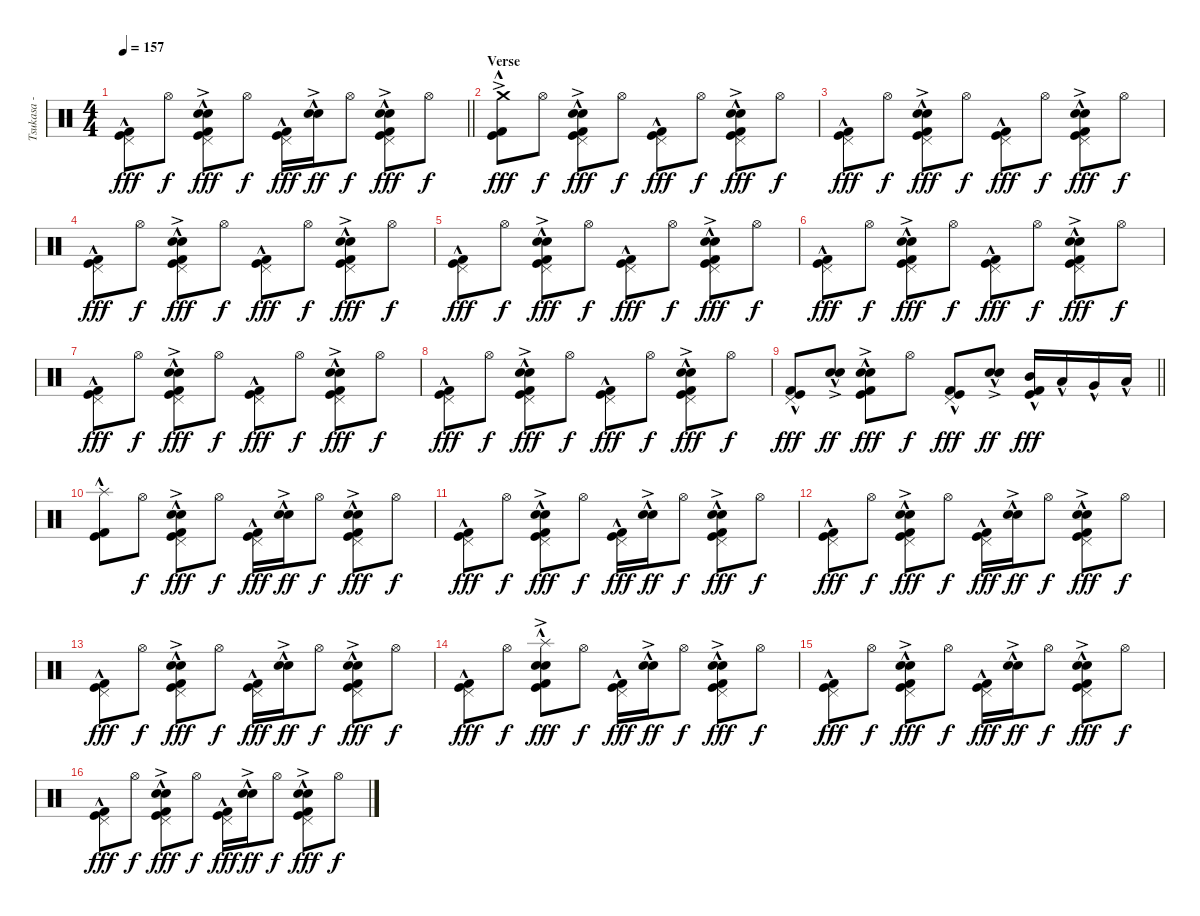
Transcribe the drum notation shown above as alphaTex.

\track ("Tsukasa - Drums" "Tsukasa - ") {instrument percussion}
\staff {score}
\articulation defaults
\ts (4 4)
\tempo 157
\clef neutral
\barLineRight lightlight
\ks c
("Pedal Hi-Hat (hit)" "Kick (hit) 2"{hac} "Kick (hit)"{hac}).8{dy fff} "Hi-Hat (open)".8{dy f} ("Pedal Hi-Hat (hit)" "Electric Snare (hit)"{hac} "Snare (hit) 2"{ac} "Kick (hit) 2"{hac} "Kick (hit)"{hac}).8{dy fff} "Hi-Hat (open)".8{dy f} ("Pedal Hi-Hat (hit)" "Kick (hit) 2"{hac} "Kick (hit)"{hac}).16{dy fff} ("Electric Snare (hit)"{hac} "Snare (hit) 2"{ac}).16{dy ff} "Hi-Hat (open)".8{dy f} ("Pedal Hi-Hat (hit)" "Electric Snare (hit)"{hac} "Snare (hit) 2"{ac} "Kick (hit) 2"{hac} "Kick (hit)"{hac}).8{dy fff} "Hi-Hat (open)".8{dy f} |
\section ("" "Verse")
("Crash medium (hit)"{ac} "Kick (hit) 2"{hac} "Kick (hit)"{hac}).8{dy fff} "Hi-Hat (open)".8{dy f} ("Pedal Hi-Hat (hit)" "Electric Snare (hit)"{hac} "Snare (hit) 2"{ac} "Kick (hit) 2"{hac} "Kick (hit)"{hac}).8{dy fff} "Hi-Hat (open)".8{dy f} ("Pedal Hi-Hat (hit)" "Kick (hit) 2"{hac} "Kick (hit)"{hac}).8{dy fff} "Hi-Hat (open)".8{dy f} ("Pedal Hi-Hat (hit)" "Electric Snare (hit)"{hac} "Snare (hit) 2"{ac} "Kick (hit) 2"{hac} "Kick (hit)"{hac}).8{dy fff} "Hi-Hat (open)".8{dy f} |
("Pedal Hi-Hat (hit)" "Kick (hit) 2"{hac} "Kick (hit)"{hac}).8{dy fff} "Hi-Hat (open)".8{dy f} ("Pedal Hi-Hat (hit)" "Electric Snare (hit)"{hac} "Snare (hit) 2"{ac} "Kick (hit) 2"{hac} "Kick (hit)"{hac}).8{dy fff} "Hi-Hat (open)".8{dy f} ("Pedal Hi-Hat (hit)" "Kick (hit) 2"{hac} "Kick (hit)"{hac}).8{dy fff} "Hi-Hat (open)".8{dy f} ("Pedal Hi-Hat (hit)" "Electric Snare (hit)"{hac} "Snare (hit) 2"{ac} "Kick (hit) 2"{hac} "Kick (hit)"{hac}).8{dy fff} "Hi-Hat (open)".8{dy f} |
("Pedal Hi-Hat (hit)" "Kick (hit) 2"{hac} "Kick (hit)"{hac}).8{dy fff} "Hi-Hat (open)".8{dy f} ("Pedal Hi-Hat (hit)" "Electric Snare (hit)"{hac} "Snare (hit) 2"{ac} "Kick (hit) 2"{hac} "Kick (hit)"{hac}).8{dy fff} "Hi-Hat (open)".8{dy f} ("Pedal Hi-Hat (hit)" "Kick (hit) 2"{hac} "Kick (hit)"{hac}).8{dy fff} "Hi-Hat (open)".8{dy f} ("Pedal Hi-Hat (hit)" "Electric Snare (hit)"{hac} "Snare (hit) 2"{ac} "Kick (hit) 2"{hac} "Kick (hit)"{hac}).8{dy fff} "Hi-Hat (open)".8{dy f} |
("Pedal Hi-Hat (hit)" "Kick (hit) 2"{hac} "Kick (hit)"{hac}).8{dy fff} "Hi-Hat (open)".8{dy f} ("Pedal Hi-Hat (hit)" "Electric Snare (hit)"{hac} "Snare (hit) 2"{ac} "Kick (hit) 2"{hac} "Kick (hit)"{hac}).8{dy fff} "Hi-Hat (open)".8{dy f} ("Pedal Hi-Hat (hit)" "Kick (hit) 2"{hac} "Kick (hit)"{hac}).8{dy fff} "Hi-Hat (open)".8{dy f} ("Pedal Hi-Hat (hit)" "Electric Snare (hit)"{hac} "Snare (hit) 2"{ac} "Kick (hit) 2"{hac} "Kick (hit)"{hac}).8{dy fff} "Hi-Hat (open)".8{dy f} |
("Pedal Hi-Hat (hit)" "Kick (hit) 2"{hac} "Kick (hit)"{hac}).8{dy fff} "Hi-Hat (open)".8{dy f} ("Pedal Hi-Hat (hit)" "Electric Snare (hit)"{hac} "Snare (hit) 2"{ac} "Kick (hit) 2"{hac} "Kick (hit)"{hac}).8{dy fff} "Hi-Hat (open)".8{dy f} ("Pedal Hi-Hat (hit)" "Kick (hit) 2"{hac} "Kick (hit)"{hac}).8{dy fff} "Hi-Hat (open)".8{dy f} ("Pedal Hi-Hat (hit)" "Electric Snare (hit)"{hac} "Snare (hit) 2"{ac} "Kick (hit) 2"{hac} "Kick (hit)"{hac}).8{dy fff} "Hi-Hat (open)".8{dy f} |
("Pedal Hi-Hat (hit)" "Kick (hit) 2"{hac} "Kick (hit)"{hac}).8{dy fff} "Hi-Hat (open)".8{dy f} ("Pedal Hi-Hat (hit)" "Electric Snare (hit)"{hac} "Snare (hit) 2"{ac} "Kick (hit) 2"{hac} "Kick (hit)"{hac}).8{dy fff} "Hi-Hat (open)".8{dy f} ("Pedal Hi-Hat (hit)" "Kick (hit) 2"{hac} "Kick (hit)"{hac}).8{dy fff} "Hi-Hat (open)".8{dy f} ("Pedal Hi-Hat (hit)" "Electric Snare (hit)"{hac} "Snare (hit) 2"{ac} "Kick (hit) 2"{hac} "Kick (hit)"{hac}).8{dy fff} "Hi-Hat (open)".8{dy f} |
("Pedal Hi-Hat (hit)" "Kick (hit) 2"{hac} "Kick (hit)"{hac}).8{dy fff} "Hi-Hat (open)".8{dy f} ("Pedal Hi-Hat (hit)" "Electric Snare (hit)"{hac} "Snare (hit) 2"{ac} "Kick (hit) 2"{hac} "Kick (hit)"{hac}).8{dy fff} "Hi-Hat (open)".8{dy f} ("Pedal Hi-Hat (hit)" "Kick (hit) 2"{hac} "Kick (hit)"{hac}).8{dy fff} "Hi-Hat (open)".8{dy f} ("Pedal Hi-Hat (hit)" "Electric Snare (hit)"{hac} "Snare (hit) 2"{ac} "Kick (hit) 2"{hac} "Kick (hit)"{hac}).8{dy fff} "Hi-Hat (open)".8{dy f} |
\barLineRight lightlight
("Pedal Hi-Hat (hit)" "Kick (hit) 2"{hac} "Kick (hit)"{hac}).8{dy fff} ("Electric Snare (hit)"{hac} "Snare (hit) 2"{ac}).8{dy ff} ("Electric Snare (hit)"{hac} "Snare (hit) 2"{ac} "Kick (hit) 2"{hac} "Kick (hit)"{hac}).8{dy fff} "Hi-Hat (open)".8{dy f} ("Pedal Hi-Hat (hit)" "Kick (hit) 2"{hac} "Kick (hit)"{hac}).8{dy fff} ("Electric Snare (hit)"{hac} "Snare (hit) 2"{ac}).8{dy ff} ("Mid Tom (hit)"{hac} "Kick (hit) 2"{hac} "Kick (hit)"{hac}).16{dy fff} "Low Tom (hit)"{hac}.16 "Very Low Tom (hit)"{hac}.16 "Low Floor Tom (hit)"{hac}.16 |
\section ("" "")
("Splash (hit)"{hac} "Kick (hit) 2"{hac} "Kick (hit)"{hac}).8 "Hi-Hat (open)".8{dy f} ("Pedal Hi-Hat (hit)" "Electric Snare (hit)"{hac} "Snare (hit) 2"{ac} "Kick (hit) 2"{hac} "Kick (hit)"{hac}).8{dy fff} "Hi-Hat (open)".8{dy f} ("Pedal Hi-Hat (hit)" "Kick (hit) 2"{hac} "Kick (hit)"{hac}).16{dy fff} ("Electric Snare (hit)"{hac} "Snare (hit) 2"{ac}).16{dy ff} "Hi-Hat (open)".8{dy f} ("Pedal Hi-Hat (hit)" "Electric Snare (hit)"{hac} "Snare (hit) 2"{ac} "Kick (hit) 2"{hac} "Kick (hit)"{hac}).8{dy fff} "Hi-Hat (open)".8{dy f} |
("Pedal Hi-Hat (hit)" "Kick (hit) 2"{hac} "Kick (hit)"{hac}).8{dy fff} "Hi-Hat (open)".8{dy f} ("Pedal Hi-Hat (hit)" "Electric Snare (hit)"{hac} "Snare (hit) 2"{ac} "Kick (hit) 2"{hac} "Kick (hit)"{hac}).8{dy fff} "Hi-Hat (open)".8{dy f} ("Pedal Hi-Hat (hit)" "Kick (hit) 2"{hac} "Kick (hit)"{hac}).16{dy fff} ("Electric Snare (hit)"{hac} "Snare (hit) 2"{ac}).16{dy ff} "Hi-Hat (open)".8{dy f} ("Pedal Hi-Hat (hit)" "Electric Snare (hit)"{hac} "Snare (hit) 2"{ac} "Kick (hit) 2"{hac} "Kick (hit)"{hac}).8{dy fff} "Hi-Hat (open)".8{dy f} |
("Pedal Hi-Hat (hit)" "Kick (hit) 2"{hac} "Kick (hit)"{hac}).8{dy fff} "Hi-Hat (open)".8{dy f} ("Pedal Hi-Hat (hit)" "Electric Snare (hit)"{hac} "Snare (hit) 2"{ac} "Kick (hit) 2"{hac} "Kick (hit)"{hac}).8{dy fff} "Hi-Hat (open)".8{dy f} ("Pedal Hi-Hat (hit)" "Kick (hit) 2"{hac} "Kick (hit)"{hac}).16{dy fff} ("Electric Snare (hit)"{hac} "Snare (hit) 2"{ac}).16{dy ff} "Hi-Hat (open)".8{dy f} ("Pedal Hi-Hat (hit)" "Electric Snare (hit)"{hac} "Snare (hit) 2"{ac} "Kick (hit) 2"{hac} "Kick (hit)"{hac}).8{dy fff} "Hi-Hat (open)".8{dy f} |
("Pedal Hi-Hat (hit)" "Kick (hit) 2"{hac} "Kick (hit)"{hac}).8{dy fff} "Hi-Hat (open)".8{dy f} ("Pedal Hi-Hat (hit)" "Electric Snare (hit)"{hac} "Snare (hit) 2"{ac} "Kick (hit) 2"{hac} "Kick (hit)"{hac}).8{dy fff} "Hi-Hat (open)".8{dy f} ("Pedal Hi-Hat (hit)" "Kick (hit) 2"{hac} "Kick (hit)"{hac}).16{dy fff} ("Electric Snare (hit)"{hac} "Snare (hit) 2"{ac}).16{dy ff} "Hi-Hat (open)".8{dy f} ("Pedal Hi-Hat (hit)" "Electric Snare (hit)"{hac} "Snare (hit) 2"{ac} "Kick (hit) 2"{hac} "Kick (hit)"{hac}).8{dy fff} "Hi-Hat (open)".8{dy f} |
("Pedal Hi-Hat (hit)" "Kick (hit) 2"{hac} "Kick (hit)"{hac}).8{dy fff} "Hi-Hat (open)".8{dy f} ("Splash (hit)"{hac} "Electric Snare (hit)"{hac} "Snare (hit) 2"{ac} "Kick (hit) 2"{hac} "Kick (hit)"{hac}).8{dy fff} "Hi-Hat (open)".8{dy f} ("Pedal Hi-Hat (hit)" "Kick (hit) 2"{hac} "Kick (hit)"{hac}).16{dy fff} ("Electric Snare (hit)"{hac} "Snare (hit) 2"{ac}).16{dy ff} "Hi-Hat (open)".8{dy f} ("Pedal Hi-Hat (hit)" "Electric Snare (hit)"{hac} "Snare (hit) 2"{ac} "Kick (hit) 2"{hac} "Kick (hit)"{hac}).8{dy fff} "Hi-Hat (open)".8{dy f} |
("Pedal Hi-Hat (hit)" "Kick (hit) 2"{hac} "Kick (hit)"{hac}).8{dy fff} "Hi-Hat (open)".8{dy f} ("Pedal Hi-Hat (hit)" "Electric Snare (hit)"{hac} "Snare (hit) 2"{ac} "Kick (hit) 2"{hac} "Kick (hit)"{hac}).8{dy fff} "Hi-Hat (open)".8{dy f} ("Pedal Hi-Hat (hit)" "Kick (hit) 2"{hac} "Kick (hit)"{hac}).16{dy fff} ("Electric Snare (hit)"{hac} "Snare (hit) 2"{ac}).16{dy ff} "Hi-Hat (open)".8{dy f} ("Pedal Hi-Hat (hit)" "Electric Snare (hit)"{hac} "Snare (hit) 2"{ac} "Kick (hit) 2"{hac} "Kick (hit)"{hac}).8{dy fff} "Hi-Hat (open)".8{dy f} |
("Pedal Hi-Hat (hit)" "Kick (hit) 2"{hac} "Kick (hit)"{hac}).8{dy fff} "Hi-Hat (open)".8{dy f} ("Pedal Hi-Hat (hit)" "Electric Snare (hit)"{hac} "Snare (hit) 2"{ac} "Kick (hit) 2"{hac} "Kick (hit)"{hac}).8{dy fff} "Hi-Hat (open)".8{dy f} ("Pedal Hi-Hat (hit)" "Kick (hit) 2"{hac} "Kick (hit)"{hac}).16{dy fff} ("Electric Snare (hit)"{hac} "Snare (hit) 2"{ac}).16{dy ff} "Hi-Hat (open)".8{dy f} ("Pedal Hi-Hat (hit)" "Electric Snare (hit)"{hac} "Snare (hit) 2"{ac} "Kick (hit) 2"{hac} "Kick (hit)"{hac}).8{dy fff} "Hi-Hat (open)".8{dy f}
